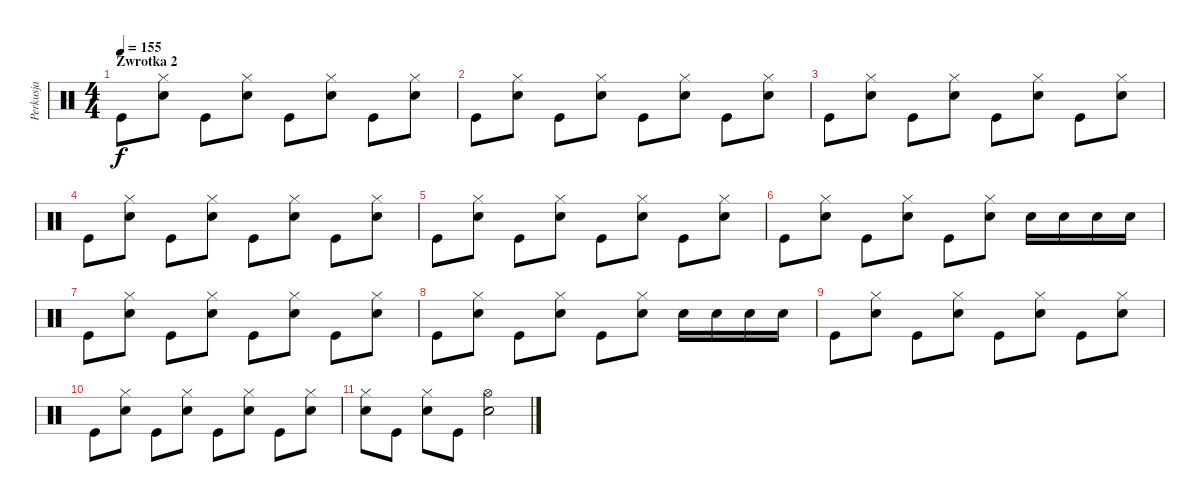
\track ("Perkusja" "Perkusja") {instrument percussion}
\staff {score}
\articulation defaults
\ts (4 4)
\section ("" "Zwrotka 2")
\tempo 155
\clef neutral
\ks c "Kick (hit)".8{dy f}
("Snare (hit) 2" "Hi-Hat (closed)").8 "Kick (hit)".8 ("Snare (hit) 2" "Hi-Hat (closed)").8 "Kick (hit)".8 ("Snare (hit) 2" "Hi-Hat (closed)").8 "Kick (hit)".8 ("Snare (hit) 2" "Hi-Hat (closed)").8 |
"Kick (hit)".8 ("Snare (hit) 2" "Hi-Hat (closed)").8 "Kick (hit)".8 ("Snare (hit) 2" "Hi-Hat (closed)").8 "Kick (hit)".8 ("Snare (hit) 2" "Hi-Hat (closed)").8 "Kick (hit)".8 ("Snare (hit) 2" "Hi-Hat (closed)").8 |
"Kick (hit)".8 ("Snare (hit) 2" "Hi-Hat (closed)").8 "Kick (hit)".8 ("Snare (hit) 2" "Hi-Hat (closed)").8 "Kick (hit)".8 ("Snare (hit) 2" "Hi-Hat (closed)").8 "Kick (hit)".8 ("Snare (hit) 2" "Hi-Hat (closed)").8 |
"Kick (hit)".8 ("Snare (hit) 2" "Hi-Hat (closed)").8 "Kick (hit)".8 ("Snare (hit) 2" "Hi-Hat (closed)").8 "Kick (hit)".8 ("Snare (hit) 2" "Hi-Hat (closed)").8 "Kick (hit)".8 ("Snare (hit) 2" "Hi-Hat (closed)").8 |
"Kick (hit)".8 ("Snare (hit) 2" "Hi-Hat (closed)").8 "Kick (hit)".8 ("Snare (hit) 2" "Hi-Hat (closed)").8 "Kick (hit)".8 ("Snare (hit) 2" "Hi-Hat (closed)").8 "Kick (hit)".8 ("Snare (hit) 2" "Hi-Hat (closed)").8 |
"Kick (hit)".8 ("Snare (hit) 2" "Hi-Hat (closed)").8 "Kick (hit)".8 ("Snare (hit) 2" "Hi-Hat (closed)").8 "Kick (hit)".8 ("Snare (hit) 2" "Hi-Hat (closed)").8 "Snare (hit) 2".16 "Snare (hit) 2".16 "Snare (hit) 2".16 "Snare (hit) 2".16 |
"Kick (hit)".8 ("Snare (hit) 2" "Hi-Hat (closed)").8 "Kick (hit)".8 ("Snare (hit) 2" "Hi-Hat (closed)").8 "Kick (hit)".8 ("Snare (hit) 2" "Hi-Hat (closed)").8 "Kick (hit)".8 ("Snare (hit) 2" "Hi-Hat (closed)").8 |
"Kick (hit)".8 ("Snare (hit) 2" "Hi-Hat (closed)").8 "Kick (hit)".8 ("Snare (hit) 2" "Hi-Hat (closed)").8 "Kick (hit)".8 ("Snare (hit) 2" "Hi-Hat (closed)").8 "Snare (hit) 2".16 "Snare (hit) 2".16 "Snare (hit) 2".16 "Snare (hit) 2".16 |
"Kick (hit)".8 ("Snare (hit) 2" "Hi-Hat (closed)").8 "Kick (hit)".8 ("Snare (hit) 2" "Hi-Hat (closed)").8 "Kick (hit)".8 ("Snare (hit) 2" "Hi-Hat (closed)").8 "Kick (hit)".8 ("Snare (hit) 2" "Hi-Hat (closed)").8 |
"Kick (hit)".8 ("Snare (hit) 2" "Hi-Hat (closed)").8 "Kick (hit)".8 ("Snare (hit) 2" "Hi-Hat (closed)").8 "Kick (hit)".8 ("Snare (hit) 2" "Hi-Hat (closed)").8 "Kick (hit)".8 ("Snare (hit) 2" "Hi-Hat (closed)").8 |
("Snare (hit) 2" "Hi-Hat (closed)").8 "Kick (hit)".8 ("Snare (hit) 2" "Hi-Hat (closed)").8 "Kick (hit)".8 ("Snare (hit) 2" "Hi-Hat (open)").2
